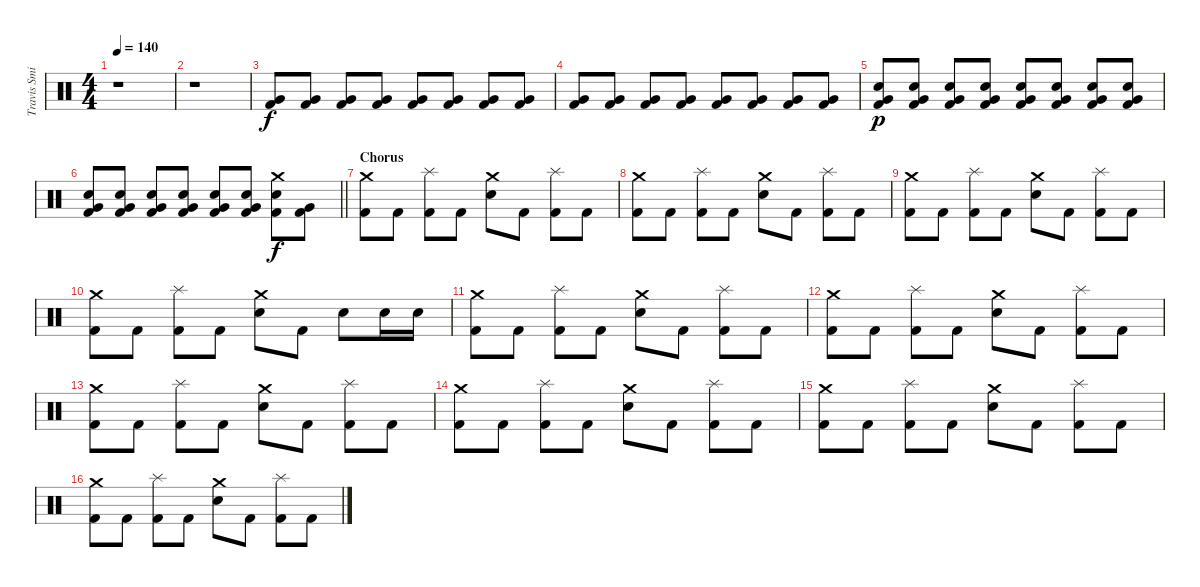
\track ("Travis Smith" "Travis Smi") {instrument percussion}
\staff {score}
\articulation defaults
\ts (4 4)
\tempo 140
\clef neutral
\ks c
r.1{dy f} |
r.1 |
("Very Low Tom (hit)" "Kick (hit) 2").8 ("Very Low Tom (hit)" "Kick (hit) 2").8 ("Very Low Tom (hit)" "Kick (hit) 2").8 ("Very Low Tom (hit)" "Kick (hit) 2").8 ("Very Low Tom (hit)" "Kick (hit) 2").8 ("Very Low Tom (hit)" "Kick (hit) 2").8 ("Very Low Tom (hit)" "Kick (hit) 2").8 ("Very Low Tom (hit)" "Kick (hit) 2").8 |
("Very Low Tom (hit)" "Kick (hit) 2").8 ("Very Low Tom (hit)" "Kick (hit) 2").8 ("Very Low Tom (hit)" "Kick (hit) 2").8 ("Very Low Tom (hit)" "Kick (hit) 2").8 ("Very Low Tom (hit)" "Kick (hit) 2").8 ("Very Low Tom (hit)" "Kick (hit) 2").8 ("Very Low Tom (hit)" "Kick (hit) 2").8 ("Very Low Tom (hit)" "Kick (hit) 2").8 |
("Electric Snare (hit)" "Very Low Tom (hit)" "Kick (hit) 2").8{dy p} ("Electric Snare (hit)" "Very Low Tom (hit)" "Kick (hit) 2").8 ("Electric Snare (hit)" "Very Low Tom (hit)" "Kick (hit) 2").8 ("Electric Snare (hit)" "Very Low Tom (hit)" "Kick (hit) 2").8 ("Electric Snare (hit)" "Very Low Tom (hit)" "Kick (hit) 2").8 ("Electric Snare (hit)" "Very Low Tom (hit)" "Kick (hit) 2").8 ("Electric Snare (hit)" "Very Low Tom (hit)" "Kick (hit) 2").8 ("Electric Snare (hit)" "Very Low Tom (hit)" "Kick (hit) 2").8 |
\barLineRight lightlight
("Electric Snare (hit)" "Very Low Tom (hit)" "Kick (hit) 2").8 ("Electric Snare (hit)" "Very Low Tom (hit)" "Kick (hit) 2").8 ("Electric Snare (hit)" "Very Low Tom (hit)" "Kick (hit) 2").8 ("Electric Snare (hit)" "Very Low Tom (hit)" "Kick (hit) 2").8 ("Electric Snare (hit)" "Very Low Tom (hit)" "Kick (hit) 2").8 ("Electric Snare (hit)" "Very Low Tom (hit)" "Kick (hit) 2").8 ("Crash medium (hit)" "Electric Snare (hit)" "Kick (hit) 2").8{dy f} ("Very Low Tom (hit)" "Kick (hit) 2").8 |
\section ("" "Chorus")
("Crash medium (hit)" "Kick (hit) 2").8 "Kick (hit) 2".8 ("Splash (hit)" "Kick (hit) 2").8 "Kick (hit) 2".8 ("Crash medium (hit)" "Electric Snare (hit)").8 "Kick (hit) 2".8 ("Splash (hit)" "Kick (hit) 2").8 "Kick (hit) 2".8 |
("Crash medium (hit)" "Kick (hit) 2").8 "Kick (hit) 2".8 ("Splash (hit)" "Kick (hit) 2").8 "Kick (hit) 2".8 ("Crash medium (hit)" "Electric Snare (hit)").8 "Kick (hit) 2".8 ("Splash (hit)" "Kick (hit) 2").8 "Kick (hit) 2".8 |
("Crash medium (hit)" "Kick (hit) 2").8 "Kick (hit) 2".8 ("Splash (hit)" "Kick (hit) 2").8 "Kick (hit) 2".8 ("Crash medium (hit)" "Electric Snare (hit)").8 "Kick (hit) 2".8 ("Splash (hit)" "Kick (hit) 2").8 "Kick (hit) 2".8 |
("Crash medium (hit)" "Kick (hit) 2").8 "Kick (hit) 2".8 ("Splash (hit)" "Kick (hit) 2").8 "Kick (hit) 2".8 ("Crash medium (hit)" "Electric Snare (hit)").8 "Kick (hit) 2".8 "Electric Snare (hit)".8 "Electric Snare (hit)".16 "Electric Snare (hit)".16 |
("Crash medium (hit)" "Kick (hit) 2").8 "Kick (hit) 2".8 ("Splash (hit)" "Kick (hit) 2").8 "Kick (hit) 2".8 ("Crash medium (hit)" "Electric Snare (hit)").8 "Kick (hit) 2".8 ("Splash (hit)" "Kick (hit) 2").8 "Kick (hit) 2".8 |
("Crash medium (hit)" "Kick (hit) 2").8 "Kick (hit) 2".8 ("Splash (hit)" "Kick (hit) 2").8 "Kick (hit) 2".8 ("Crash medium (hit)" "Electric Snare (hit)").8 "Kick (hit) 2".8 ("Splash (hit)" "Kick (hit) 2").8 "Kick (hit) 2".8 |
("Crash medium (hit)" "Kick (hit) 2").8 "Kick (hit) 2".8 ("Splash (hit)" "Kick (hit) 2").8 "Kick (hit) 2".8 ("Crash medium (hit)" "Electric Snare (hit)").8 "Kick (hit) 2".8 ("Splash (hit)" "Kick (hit) 2").8 "Kick (hit) 2".8 |
("Crash medium (hit)" "Kick (hit) 2").8 "Kick (hit) 2".8 ("Splash (hit)" "Kick (hit) 2").8 "Kick (hit) 2".8 ("Crash medium (hit)" "Electric Snare (hit)").8 "Kick (hit) 2".8 ("Splash (hit)" "Kick (hit) 2").8 "Kick (hit) 2".8 |
("Crash medium (hit)" "Kick (hit) 2").8 "Kick (hit) 2".8 ("Splash (hit)" "Kick (hit) 2").8 "Kick (hit) 2".8 ("Crash medium (hit)" "Electric Snare (hit)").8 "Kick (hit) 2".8 ("Splash (hit)" "Kick (hit) 2").8 "Kick (hit) 2".8 |
("Crash medium (hit)" "Kick (hit) 2").8 "Kick (hit) 2".8 ("Splash (hit)" "Kick (hit) 2").8 "Kick (hit) 2".8 ("Crash medium (hit)" "Electric Snare (hit)").8 "Kick (hit) 2".8 ("Splash (hit)" "Kick (hit) 2").8 "Kick (hit) 2".8
